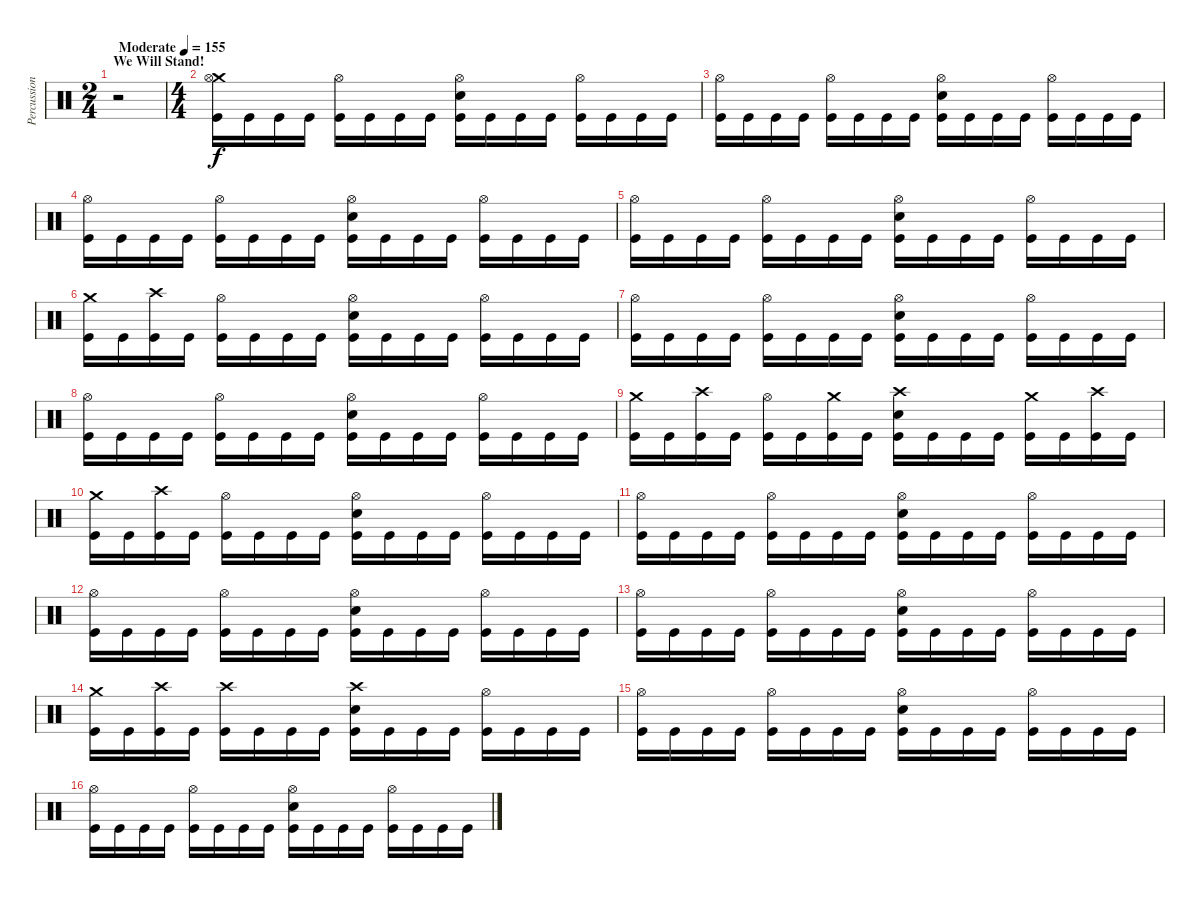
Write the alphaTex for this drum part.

\track ("Percussion" "Percussion") {instrument percussion}
\staff {score}
\articulation defaults
\ts (2 4)
\section ("" "We Will Stand!")
\tempo (155 "Moderate")
\clef neutral
\ks c
r.2{dy f} |
\ts (4 4)
("Crash medium (hit)" "Hi-Hat (open)" "Kick (hit)").16 "Kick (hit)".16 "Kick (hit)".16 "Kick (hit)".16 ("Hi-Hat (open)" "Kick (hit)").16 "Kick (hit)".16 "Kick (hit)".16 "Kick (hit)".16 ("Hi-Hat (open)" "Electric Snare (hit)" "Kick (hit)").16 "Kick (hit)".16 "Kick (hit)".16 "Kick (hit)".16 ("Hi-Hat (open)" "Kick (hit)").16 "Kick (hit)".16 "Kick (hit)".16 "Kick (hit)".16 |
("Hi-Hat (open)" "Kick (hit)").16 "Kick (hit)".16 "Kick (hit)".16 "Kick (hit)".16 ("Hi-Hat (open)" "Kick (hit)").16 "Kick (hit)".16 "Kick (hit)".16 "Kick (hit)".16 ("Hi-Hat (open)" "Electric Snare (hit)" "Kick (hit)").16 "Kick (hit)".16 "Kick (hit)".16 "Kick (hit)".16 ("Hi-Hat (open)" "Kick (hit)").16 "Kick (hit)".16 "Kick (hit)".16 "Kick (hit)".16 |
("Hi-Hat (open)" "Kick (hit)").16 "Kick (hit)".16 "Kick (hit)".16 "Kick (hit)".16 ("Hi-Hat (open)" "Kick (hit)").16 "Kick (hit)".16 "Kick (hit)".16 "Kick (hit)".16 ("Hi-Hat (open)" "Electric Snare (hit)" "Kick (hit)").16 "Kick (hit)".16 "Kick (hit)".16 "Kick (hit)".16 ("Hi-Hat (open)" "Kick (hit)").16 "Kick (hit)".16 "Kick (hit)".16 "Kick (hit)".16 |
("Hi-Hat (open)" "Kick (hit)").16 "Kick (hit)".16 "Kick (hit)".16 "Kick (hit)".16 ("Hi-Hat (open)" "Kick (hit)").16 "Kick (hit)".16 "Kick (hit)".16 "Kick (hit)".16 ("Hi-Hat (open)" "Electric Snare (hit)" "Kick (hit)").16 "Kick (hit)".16 "Kick (hit)".16 "Kick (hit)".16 ("Hi-Hat (open)" "Kick (hit)").16 "Kick (hit)".16 "Kick (hit)".16 "Kick (hit)".16 |
("Crash medium (hit)" "Kick (hit)").16 "Kick (hit)".16 ("Crash high (hit)" "Kick (hit)").16 "Kick (hit)".16 ("Hi-Hat (open)" "Kick (hit)").16 "Kick (hit)".16 "Kick (hit)".16 "Kick (hit)".16 ("Hi-Hat (open)" "Electric Snare (hit)" "Kick (hit)").16 "Kick (hit)".16 "Kick (hit)".16 "Kick (hit)".16 ("Hi-Hat (open)" "Kick (hit)").16 "Kick (hit)".16 "Kick (hit)".16 "Kick (hit)".16 |
("Hi-Hat (open)" "Kick (hit)").16 "Kick (hit)".16 "Kick (hit)".16 "Kick (hit)".16 ("Hi-Hat (open)" "Kick (hit)").16 "Kick (hit)".16 "Kick (hit)".16 "Kick (hit)".16 ("Hi-Hat (open)" "Electric Snare (hit)" "Kick (hit)").16 "Kick (hit)".16 "Kick (hit)".16 "Kick (hit)".16 ("Hi-Hat (open)" "Kick (hit)").16 "Kick (hit)".16 "Kick (hit)".16 "Kick (hit)".16 |
("Hi-Hat (open)" "Kick (hit)").16 "Kick (hit)".16 "Kick (hit)".16 "Kick (hit)".16 ("Hi-Hat (open)" "Kick (hit)").16 "Kick (hit)".16 "Kick (hit)".16 "Kick (hit)".16 ("Hi-Hat (open)" "Electric Snare (hit)" "Kick (hit)").16 "Kick (hit)".16 "Kick (hit)".16 "Kick (hit)".16 ("Hi-Hat (open)" "Kick (hit)").16 "Kick (hit)".16 "Kick (hit)".16 "Kick (hit)".16 |
("Crash medium (hit)" "Kick (hit)").16 "Kick (hit)".16 ("Crash high (hit)" "Kick (hit)").16 "Kick (hit)".16 ("Hi-Hat (open)" "Kick (hit)").16 "Kick (hit)".16 ("Crash medium (hit)" "Kick (hit)").16 "Kick (hit)".16 ("Crash high (hit)" "Electric Snare (hit)" "Kick (hit)").16 "Kick (hit)".16 "Kick (hit)".16 "Kick (hit)".16 ("Crash medium (hit)" "Kick (hit)").16 "Kick (hit)".16 ("Crash high (hit)" "Kick (hit)").16 "Kick (hit)".16 |
("Crash medium (hit)" "Kick (hit)").16 "Kick (hit)".16 ("Crash high (hit)" "Kick (hit)").16 "Kick (hit)".16 ("Hi-Hat (open)" "Kick (hit)").16 "Kick (hit)".16 "Kick (hit)".16 "Kick (hit)".16 ("Hi-Hat (open)" "Electric Snare (hit)" "Kick (hit)").16 "Kick (hit)".16 "Kick (hit)".16 "Kick (hit)".16 ("Hi-Hat (open)" "Kick (hit)").16 "Kick (hit)".16 "Kick (hit)".16 "Kick (hit)".16 |
("Hi-Hat (open)" "Kick (hit)").16 "Kick (hit)".16 "Kick (hit)".16 "Kick (hit)".16 ("Hi-Hat (open)" "Kick (hit)").16 "Kick (hit)".16 "Kick (hit)".16 "Kick (hit)".16 ("Hi-Hat (open)" "Electric Snare (hit)" "Kick (hit)").16 "Kick (hit)".16 "Kick (hit)".16 "Kick (hit)".16 ("Hi-Hat (open)" "Kick (hit)").16 "Kick (hit)".16 "Kick (hit)".16 "Kick (hit)".16 |
("Hi-Hat (open)" "Kick (hit)").16 "Kick (hit)".16 "Kick (hit)".16 "Kick (hit)".16 ("Hi-Hat (open)" "Kick (hit)").16 "Kick (hit)".16 "Kick (hit)".16 "Kick (hit)".16 ("Hi-Hat (open)" "Electric Snare (hit)" "Kick (hit)").16 "Kick (hit)".16 "Kick (hit)".16 "Kick (hit)".16 ("Hi-Hat (open)" "Kick (hit)").16 "Kick (hit)".16 "Kick (hit)".16 "Kick (hit)".16 |
("Hi-Hat (open)" "Kick (hit)").16 "Kick (hit)".16 "Kick (hit)".16 "Kick (hit)".16 ("Hi-Hat (open)" "Kick (hit)").16 "Kick (hit)".16 "Kick (hit)".16 "Kick (hit)".16 ("Hi-Hat (open)" "Electric Snare (hit)" "Kick (hit)").16 "Kick (hit)".16 "Kick (hit)".16 "Kick (hit)".16 ("Hi-Hat (open)" "Kick (hit)").16 "Kick (hit)".16 "Kick (hit)".16 "Kick (hit)".16 |
("Crash medium (hit)" "Kick (hit)").16 "Kick (hit)".16 ("Crash high (hit)" "Kick (hit)").16 "Kick (hit)".16 ("Crash high (hit)" "Kick (hit)").16 "Kick (hit)".16 "Kick (hit)".16 "Kick (hit)".16 ("Crash high (hit)" "Electric Snare (hit)" "Kick (hit)").16 "Kick (hit)".16 "Kick (hit)".16 "Kick (hit)".16 ("Hi-Hat (open)" "Kick (hit)").16 "Kick (hit)".16 "Kick (hit)".16 "Kick (hit)".16 |
("Hi-Hat (open)" "Kick (hit)").16 "Kick (hit)".16 "Kick (hit)".16 "Kick (hit)".16 ("Hi-Hat (open)" "Kick (hit)").16 "Kick (hit)".16 "Kick (hit)".16 "Kick (hit)".16 ("Hi-Hat (open)" "Electric Snare (hit)" "Kick (hit)").16 "Kick (hit)".16 "Kick (hit)".16 "Kick (hit)".16 ("Hi-Hat (open)" "Kick (hit)").16 "Kick (hit)".16 "Kick (hit)".16 "Kick (hit)".16 |
("Hi-Hat (open)" "Kick (hit)").16 "Kick (hit)".16 "Kick (hit)".16 "Kick (hit)".16 ("Hi-Hat (open)" "Kick (hit)").16 "Kick (hit)".16 "Kick (hit)".16 "Kick (hit)".16 ("Hi-Hat (open)" "Electric Snare (hit)" "Kick (hit)").16 "Kick (hit)".16 "Kick (hit)".16 "Kick (hit)".16 ("Hi-Hat (open)" "Kick (hit)").16 "Kick (hit)".16 "Kick (hit)".16 "Kick (hit)".16
